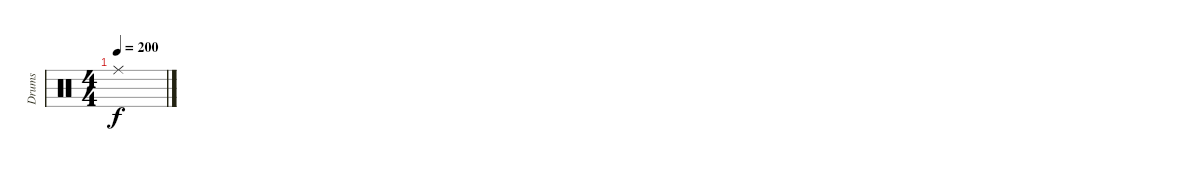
\track ("Drums" "Drums") {instrument percussion}
\staff {score}
\articulation defaults
\ts (4 4)
\tempo 200
\clef neutral
\ks c "Ride (middle)".1{dy f volume 0}
